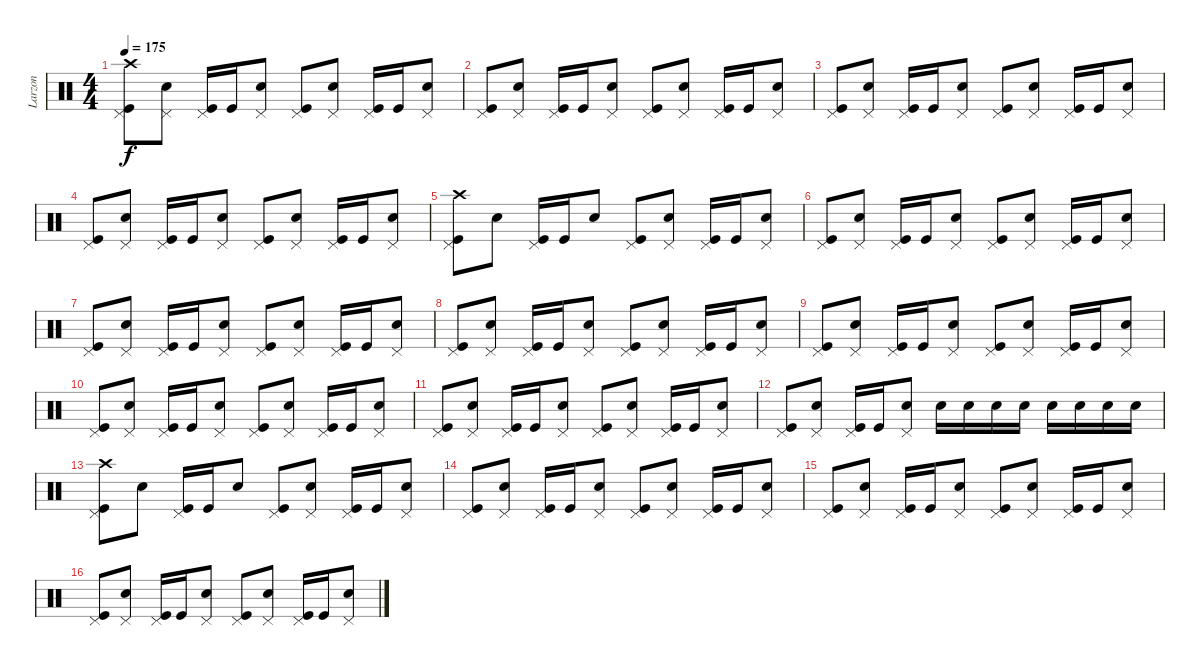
\track ("Larzon" "Larzon") {instrument percussion}
\staff {score}
\articulation defaults
\ts (4 4)
\tempo 175
\clef neutral
\ks c
("Crash high (hit)" "Kick (hit)" "Pedal Hi-Hat (hit)").8{dy f} ("Snare (hit) 2" "Pedal Hi-Hat (hit)").8 ("Kick (hit)" "Pedal Hi-Hat (hit)").16 "Kick (hit)".16 ("Snare (hit) 2" "Pedal Hi-Hat (hit)").8 ("Kick (hit)" "Pedal Hi-Hat (hit)").8 ("Snare (hit) 2" "Pedal Hi-Hat (hit)").8 ("Kick (hit)" "Pedal Hi-Hat (hit)").16 "Kick (hit)".16 ("Snare (hit) 2" "Pedal Hi-Hat (hit)").8 |
("Kick (hit)" "Pedal Hi-Hat (hit)").8 ("Snare (hit) 2" "Pedal Hi-Hat (hit)").8 ("Kick (hit)" "Pedal Hi-Hat (hit)").16 "Kick (hit)".16 ("Snare (hit) 2" "Pedal Hi-Hat (hit)").8 ("Kick (hit)" "Pedal Hi-Hat (hit)").8 ("Snare (hit) 2" "Pedal Hi-Hat (hit)").8 ("Kick (hit)" "Pedal Hi-Hat (hit)").16 "Kick (hit)".16 ("Snare (hit) 2" "Pedal Hi-Hat (hit)").8 |
("Kick (hit)" "Pedal Hi-Hat (hit)").8 ("Snare (hit) 2" "Pedal Hi-Hat (hit)").8 ("Kick (hit)" "Pedal Hi-Hat (hit)").16 "Kick (hit)".16 ("Snare (hit) 2" "Pedal Hi-Hat (hit)").8 ("Kick (hit)" "Pedal Hi-Hat (hit)").8 ("Snare (hit) 2" "Pedal Hi-Hat (hit)").8 ("Kick (hit)" "Pedal Hi-Hat (hit)").16 "Kick (hit)".16 ("Snare (hit) 2" "Pedal Hi-Hat (hit)").8 |
("Kick (hit)" "Pedal Hi-Hat (hit)").8 ("Snare (hit) 2" "Pedal Hi-Hat (hit)").8 ("Kick (hit)" "Pedal Hi-Hat (hit)").16 "Kick (hit)".16 ("Snare (hit) 2" "Pedal Hi-Hat (hit)").8 ("Kick (hit)" "Pedal Hi-Hat (hit)").8 ("Snare (hit) 2" "Pedal Hi-Hat (hit)").8 ("Kick (hit)" "Pedal Hi-Hat (hit)").16 "Kick (hit)".16 ("Snare (hit) 2" "Pedal Hi-Hat (hit)").8 |
("Kick (hit)" "Crash high (hit)" "Pedal Hi-Hat (hit)").8 "Snare (hit) 2".8 ("Kick (hit)" "Pedal Hi-Hat (hit)").16 "Kick (hit)".16 "Snare (hit) 2".8 ("Kick (hit)" "Pedal Hi-Hat (hit)").8 ("Snare (hit) 2" "Pedal Hi-Hat (hit)").8 ("Kick (hit)" "Pedal Hi-Hat (hit)").16 "Kick (hit)".16 ("Snare (hit) 2" "Pedal Hi-Hat (hit)").8 |
("Kick (hit)" "Pedal Hi-Hat (hit)").8 ("Snare (hit) 2" "Pedal Hi-Hat (hit)").8 ("Kick (hit)" "Pedal Hi-Hat (hit)").16 "Kick (hit)".16 ("Snare (hit) 2" "Pedal Hi-Hat (hit)").8 ("Kick (hit)" "Pedal Hi-Hat (hit)").8 ("Snare (hit) 2" "Pedal Hi-Hat (hit)").8 ("Kick (hit)" "Pedal Hi-Hat (hit)").16 "Kick (hit)".16 ("Snare (hit) 2" "Pedal Hi-Hat (hit)").8 |
("Kick (hit)" "Pedal Hi-Hat (hit)").8 ("Snare (hit) 2" "Pedal Hi-Hat (hit)").8 ("Kick (hit)" "Pedal Hi-Hat (hit)").16 "Kick (hit)".16 ("Snare (hit) 2" "Pedal Hi-Hat (hit)").8 ("Kick (hit)" "Pedal Hi-Hat (hit)").8 ("Snare (hit) 2" "Pedal Hi-Hat (hit)").8 ("Kick (hit)" "Pedal Hi-Hat (hit)").16 "Kick (hit)".16 ("Snare (hit) 2" "Pedal Hi-Hat (hit)").8 |
("Kick (hit)" "Pedal Hi-Hat (hit)").8 ("Snare (hit) 2" "Pedal Hi-Hat (hit)").8 ("Kick (hit)" "Pedal Hi-Hat (hit)").16 "Kick (hit)".16 ("Snare (hit) 2" "Pedal Hi-Hat (hit)").8 ("Kick (hit)" "Pedal Hi-Hat (hit)").8 ("Snare (hit) 2" "Pedal Hi-Hat (hit)").8 ("Kick (hit)" "Pedal Hi-Hat (hit)").16 "Kick (hit)".16 ("Snare (hit) 2" "Pedal Hi-Hat (hit)").8 |
("Kick (hit)" "Pedal Hi-Hat (hit)").8 ("Snare (hit) 2" "Pedal Hi-Hat (hit)").8 ("Kick (hit)" "Pedal Hi-Hat (hit)").16 "Kick (hit)".16 ("Snare (hit) 2" "Pedal Hi-Hat (hit)").8 ("Kick (hit)" "Pedal Hi-Hat (hit)").8 ("Snare (hit) 2" "Pedal Hi-Hat (hit)").8 ("Kick (hit)" "Pedal Hi-Hat (hit)").16 "Kick (hit)".16 ("Snare (hit) 2" "Pedal Hi-Hat (hit)").8 |
("Kick (hit)" "Pedal Hi-Hat (hit)").8 ("Snare (hit) 2" "Pedal Hi-Hat (hit)").8 ("Kick (hit)" "Pedal Hi-Hat (hit)").16 "Kick (hit)".16 ("Snare (hit) 2" "Pedal Hi-Hat (hit)").8 ("Kick (hit)" "Pedal Hi-Hat (hit)").8 ("Snare (hit) 2" "Pedal Hi-Hat (hit)").8 ("Kick (hit)" "Pedal Hi-Hat (hit)").16 "Kick (hit)".16 ("Snare (hit) 2" "Pedal Hi-Hat (hit)").8 |
("Kick (hit)" "Pedal Hi-Hat (hit)").8 ("Snare (hit) 2" "Pedal Hi-Hat (hit)").8 ("Kick (hit)" "Pedal Hi-Hat (hit)").16 "Kick (hit)".16 ("Snare (hit) 2" "Pedal Hi-Hat (hit)").8 ("Kick (hit)" "Pedal Hi-Hat (hit)").8 ("Snare (hit) 2" "Pedal Hi-Hat (hit)").8 ("Kick (hit)" "Pedal Hi-Hat (hit)").16 "Kick (hit)".16 ("Snare (hit) 2" "Pedal Hi-Hat (hit)").8 |
("Kick (hit)" "Pedal Hi-Hat (hit)").8 ("Snare (hit) 2" "Pedal Hi-Hat (hit)").8 ("Kick (hit)" "Pedal Hi-Hat (hit)").16 "Kick (hit)".16 ("Snare (hit) 2" "Pedal Hi-Hat (hit)").8 "Snare (hit) 2".16 "Snare (hit) 2".16 "Snare (hit) 2".16 "Snare (hit) 2".16 "Snare (hit) 2".16 "Snare (hit) 2".16 "Snare (hit) 2".16 "Snare (hit) 2".16 |
("Kick (hit)" "Crash high (hit)" "Pedal Hi-Hat (hit)").8 "Snare (hit) 2".8 ("Kick (hit)" "Pedal Hi-Hat (hit)").16 "Kick (hit)".16 "Snare (hit) 2".8 ("Kick (hit)" "Pedal Hi-Hat (hit)").8 ("Snare (hit) 2" "Pedal Hi-Hat (hit)").8 ("Kick (hit)" "Pedal Hi-Hat (hit)").16 "Kick (hit)".16 ("Snare (hit) 2" "Pedal Hi-Hat (hit)").8 |
("Kick (hit)" "Pedal Hi-Hat (hit)").8 ("Snare (hit) 2" "Pedal Hi-Hat (hit)").8 ("Kick (hit)" "Pedal Hi-Hat (hit)").16 "Kick (hit)".16 ("Snare (hit) 2" "Pedal Hi-Hat (hit)").8 ("Kick (hit)" "Pedal Hi-Hat (hit)").8 ("Snare (hit) 2" "Pedal Hi-Hat (hit)").8 ("Kick (hit)" "Pedal Hi-Hat (hit)").16 "Kick (hit)".16 ("Snare (hit) 2" "Pedal Hi-Hat (hit)").8 |
("Kick (hit)" "Pedal Hi-Hat (hit)").8 ("Snare (hit) 2" "Pedal Hi-Hat (hit)").8 ("Kick (hit)" "Pedal Hi-Hat (hit)").16 "Kick (hit)".16 ("Snare (hit) 2" "Pedal Hi-Hat (hit)").8 ("Kick (hit)" "Pedal Hi-Hat (hit)").8 ("Snare (hit) 2" "Pedal Hi-Hat (hit)").8 ("Kick (hit)" "Pedal Hi-Hat (hit)").16 "Kick (hit)".16 ("Snare (hit) 2" "Pedal Hi-Hat (hit)").8 |
("Kick (hit)" "Pedal Hi-Hat (hit)").8 ("Snare (hit) 2" "Pedal Hi-Hat (hit)").8 ("Kick (hit)" "Pedal Hi-Hat (hit)").16 "Kick (hit)".16 ("Snare (hit) 2" "Pedal Hi-Hat (hit)").8 ("Kick (hit)" "Pedal Hi-Hat (hit)").8 ("Snare (hit) 2" "Pedal Hi-Hat (hit)").8 ("Kick (hit)" "Pedal Hi-Hat (hit)").16 "Kick (hit)".16 ("Snare (hit) 2" "Pedal Hi-Hat (hit)").8
